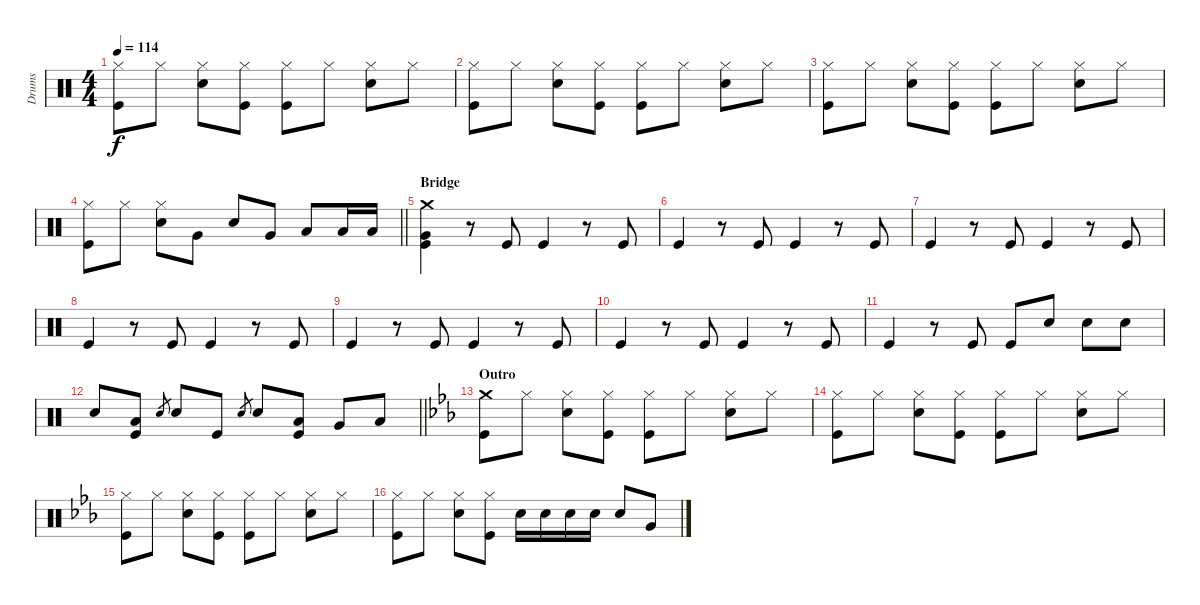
\track ("Drums" "Drums") {instrument percussion}
\staff {score}
\articulation defaults
\ts (4 4)
\tempo 114
\clef neutral
\ks aminor
("Hi-Hat (closed)" "Kick (hit)").8{dy f} "Hi-Hat (closed)".8 ("Hi-Hat (closed)" "Electric Snare (hit)").8 ("Hi-Hat (closed)" "Kick (hit)").8 ("Hi-Hat (closed)" "Kick (hit)").8 "Hi-Hat (closed)".8 ("Hi-Hat (closed)" "Electric Snare (hit)").8 "Hi-Hat (closed)".8 |
("Hi-Hat (closed)" "Kick (hit)").8 "Hi-Hat (closed)".8 ("Hi-Hat (closed)" "Electric Snare (hit)").8 ("Hi-Hat (closed)" "Kick (hit)").8 ("Hi-Hat (closed)" "Kick (hit)").8 "Hi-Hat (closed)".8 ("Hi-Hat (closed)" "Electric Snare (hit)").8 "Hi-Hat (closed)".8 |
("Hi-Hat (closed)" "Kick (hit)").8 "Hi-Hat (closed)".8 ("Hi-Hat (closed)" "Electric Snare (hit)").8 ("Hi-Hat (closed)" "Kick (hit)").8 ("Hi-Hat (closed)" "Kick (hit)").8 "Hi-Hat (closed)".8 ("Hi-Hat (closed)" "Electric Snare (hit)").8 "Hi-Hat (closed)".8 |
\barLineRight lightlight
("Hi-Hat (closed)" "Kick (hit)").8 "Hi-Hat (closed)".8 ("Hi-Hat (closed)" "Electric Snare (hit)").8 "Very Low Tom (hit)".8 "Electric Snare (hit)".8 "Very Low Tom (hit)".8 "Low Tom (hit)".8 "Low Tom (hit)".16 "Low Tom (hit)".16 |
\section ("" "Bridge")
("Crash medium (hit)" "Very Low Tom (hit)" "Kick (hit)").4 r.8 "Kick (hit)".8 "Kick (hit)".4 r.8 "Kick (hit)".8 |
"Kick (hit)".4 r.8 "Kick (hit)".8 "Kick (hit)".4 r.8 "Kick (hit)".8 |
"Kick (hit)".4 r.8 "Kick (hit)".8 "Kick (hit)".4 r.8 "Kick (hit)".8 |
"Kick (hit)".4 r.8 "Kick (hit)".8 "Kick (hit)".4 r.8 "Kick (hit)".8 |
"Kick (hit)".4 r.8 "Kick (hit)".8 "Kick (hit)".4 r.8 "Kick (hit)".8 |
"Kick (hit)".4 r.8 "Kick (hit)".8 "Kick (hit)".4 r.8 "Kick (hit)".8 |
"Kick (hit)".4 r.8 "Kick (hit)".8 "Kick (hit)".8 "Electric Snare (hit)".8 "Electric Snare (hit)".8 "Electric Snare (hit)".8 |
\barLineRight lightlight "Electric Snare (hit)".8
("Low Tom (hit)" "Kick (hit)").8 "Electric Snare (hit)".8{gr} "Electric Snare (hit)".8 "Kick (hit)".8 "Electric Snare (hit)".8{gr} "Electric Snare (hit)".8 ("Low Tom (hit)" "Kick (hit)").8 "Very Low Tom (hit)".8 "Low Floor Tom (hit)".8 |
\section ("" "Outro")
\ks cminor
("Crash medium (hit)" "Kick (hit)").8 "Hi-Hat (closed)".8 ("Hi-Hat (closed)" "Electric Snare (hit)").8 ("Hi-Hat (closed)" "Kick (hit)").8 ("Hi-Hat (closed)" "Kick (hit)").8 "Hi-Hat (closed)".8 ("Hi-Hat (closed)" "Electric Snare (hit)").8 "Hi-Hat (closed)".8 |
("Hi-Hat (closed)" "Kick (hit)").8 "Hi-Hat (closed)".8 ("Hi-Hat (closed)" "Electric Snare (hit)").8 ("Hi-Hat (closed)" "Kick (hit)").8 ("Hi-Hat (closed)" "Kick (hit)").8 "Hi-Hat (closed)".8 ("Hi-Hat (closed)" "Electric Snare (hit)").8 "Hi-Hat (closed)".8 |
("Hi-Hat (closed)" "Kick (hit)").8 "Hi-Hat (closed)".8 ("Hi-Hat (closed)" "Electric Snare (hit)").8 ("Hi-Hat (closed)" "Kick (hit)").8 ("Hi-Hat (closed)" "Kick (hit)").8 "Hi-Hat (closed)".8 ("Hi-Hat (closed)" "Electric Snare (hit)").8 "Hi-Hat (closed)".8 |
("Hi-Hat (closed)" "Kick (hit)").8 "Hi-Hat (closed)".8 ("Hi-Hat (closed)" "Electric Snare (hit)").8 ("Hi-Hat (closed)" "Kick (hit)").8 "Electric Snare (hit)".16 "Electric Snare (hit)".16 "Electric Snare (hit)".16 "Electric Snare (hit)".16 "Electric Snare (hit)".8 "Very Low Tom (hit)".8
